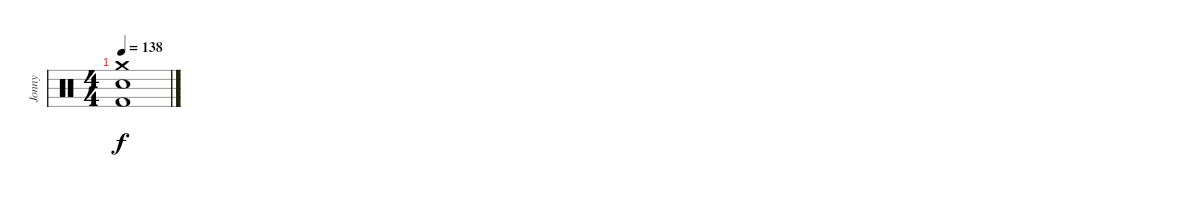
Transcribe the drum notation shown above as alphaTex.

\track ("Jonny" "Jonny") {instrument percussion}
\staff {score}
\articulation defaults
\ts (4 4)
\tempo 138
\clef neutral
\ks c
("Crash medium (hit)" "Electric Snare (hit)" "Kick (hit) 2").1{dy f}
